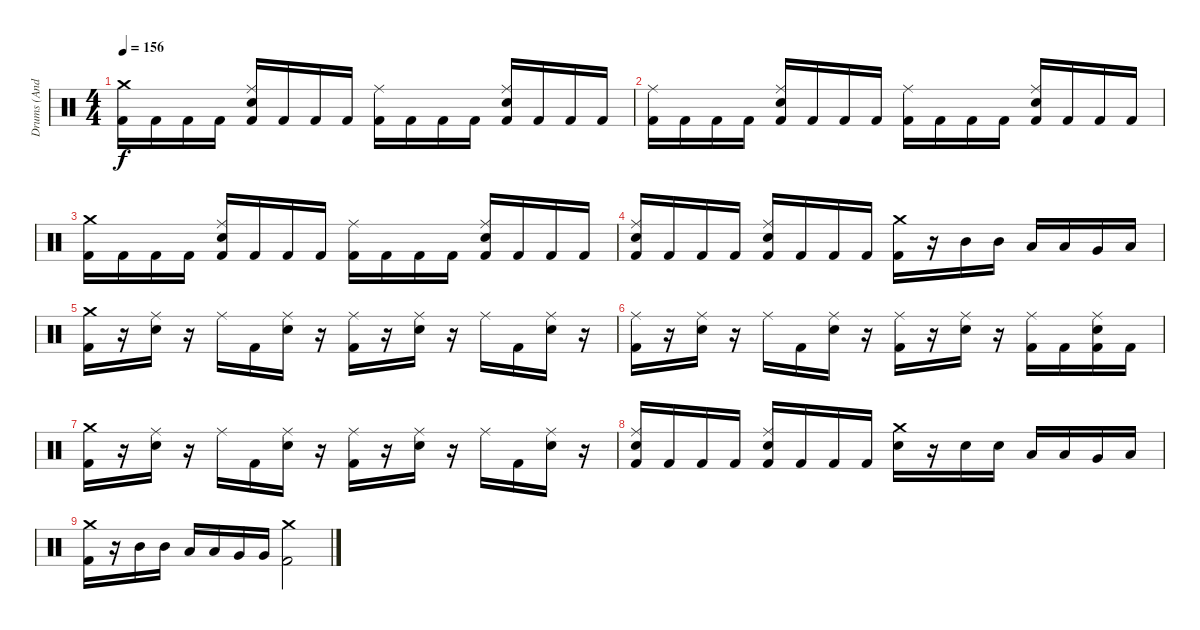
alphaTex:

\track ("Drums (Andy C)" "Drums (And") {instrument percussion}
\staff
\articulation defaults
\ts (4 4)
\tempo 156
\clef neutral
\ks c
("Crash medium (hit)" "Kick (hit) 2").16{dy f} "Kick (hit) 2".16 "Kick (hit) 2".16 "Kick (hit) 2".16 ("Ride (middle)" "Kick (hit) 2" "Electric Snare (hit)").16 "Kick (hit) 2".16 "Kick (hit) 2".16 "Kick (hit) 2".16 ("Ride (middle)" "Kick (hit) 2").16 "Kick (hit) 2".16 "Kick (hit) 2".16 "Kick (hit) 2".16 ("Ride (middle)" "Kick (hit) 2" "Electric Snare (hit)").16 "Kick (hit) 2".16 "Kick (hit) 2".16 "Kick (hit) 2".16 |
("Ride (middle)" "Kick (hit) 2").16 "Kick (hit) 2".16 "Kick (hit) 2".16 "Kick (hit) 2".16 ("Ride (middle)" "Kick (hit) 2" "Electric Snare (hit)").16 "Kick (hit) 2".16 "Kick (hit) 2".16 "Kick (hit) 2".16 ("Ride (middle)" "Kick (hit) 2").16 "Kick (hit) 2".16 "Kick (hit) 2".16 "Kick (hit) 2".16 ("Ride (middle)" "Kick (hit) 2" "Electric Snare (hit)").16 "Kick (hit) 2".16 "Kick (hit) 2".16 "Kick (hit) 2".16 |
("Crash medium (hit)" "Kick (hit) 2").16 "Kick (hit) 2".16 "Kick (hit) 2".16 "Kick (hit) 2".16 ("Ride (middle)" "Kick (hit) 2" "Electric Snare (hit)").16 "Kick (hit) 2".16 "Kick (hit) 2".16 "Kick (hit) 2".16 ("Ride (middle)" "Kick (hit) 2").16 "Kick (hit) 2".16 "Kick (hit) 2".16 "Kick (hit) 2".16 ("Ride (middle)" "Kick (hit) 2" "Electric Snare (hit)").16 "Kick (hit) 2".16 "Kick (hit) 2".16 "Kick (hit) 2".16 |
("Ride (middle)" "Kick (hit) 2" "Electric Snare (hit)").16 "Kick (hit) 2".16 "Kick (hit) 2".16 "Kick (hit) 2".16 ("Ride (middle)" "Kick (hit) 2" "Electric Snare (hit)").16 "Kick (hit) 2".16 "Kick (hit) 2".16 "Kick (hit) 2".16 ("Crash medium (hit)" "Kick (hit) 2").16 r.16 "Mid Tom (hit)".16 "Mid Tom (hit)".16 "Low Tom (hit)".16 "Low Tom (hit)".16 "Very Low Tom (hit)".16 "Low Floor Tom (hit)".16 |
("Crash medium (hit)" "Kick (hit) 2").16 r.16 ("Ride (middle)" "Electric Snare (hit)").16 r.16 "Ride (middle)".16 "Kick (hit) 2".16 ("Ride (middle)" "Electric Snare (hit)").16 r.16 ("Ride (middle)" "Kick (hit) 2").16 r.16 ("Ride (middle)" "Electric Snare (hit)").16 r.16 "Ride (middle)".16 "Kick (hit) 2".16 ("Ride (middle)" "Electric Snare (hit)").16 r.16 |
("Ride (middle)" "Kick (hit) 2").16 r.16 ("Ride (middle)" "Electric Snare (hit)").16 r.16 "Ride (middle)".16 "Kick (hit) 2".16 ("Ride (middle)" "Electric Snare (hit)").16 r.16 ("Ride (middle)" "Kick (hit) 2").16 r.16 ("Ride (middle)" "Electric Snare (hit)").16 r.16 ("Ride (middle)" "Kick (hit) 2").16 "Kick (hit) 2".16 ("Ride (middle)" "Kick (hit) 2" "Electric Snare (hit)").16 "Kick (hit) 2".16 |
("Crash medium (hit)" "Kick (hit) 2").16 r.16 ("Ride (middle)" "Electric Snare (hit)").16 r.16 "Ride (middle)".16 "Kick (hit) 2".16 ("Ride (middle)" "Electric Snare (hit)").16 r.16 ("Ride (middle)" "Kick (hit) 2").16 r.16 ("Ride (middle)" "Electric Snare (hit)").16 r.16 "Ride (middle)".16 "Kick (hit) 2".16 ("Ride (middle)" "Electric Snare (hit)").16 r.16 |
("Ride (middle)" "Kick (hit) 2" "Electric Snare (hit)").16 "Kick (hit) 2".16 "Kick (hit) 2".16 "Kick (hit) 2".16 ("Ride (middle)" "Kick (hit) 2" "Electric Snare (hit)").16 "Kick (hit) 2".16 "Kick (hit) 2".16 "Kick (hit) 2".16 ("Crash medium (hit)" "Electric Snare (hit)").16 r.16 "Electric Snare (hit)".16 "Electric Snare (hit)".16 "Low Tom (hit)".16 "Low Tom (hit)".16 "Very Low Tom (hit)".16 "Low Floor Tom (hit)".16 |
("Crash medium (hit)" "Kick (hit) 2").16 r.16 "Mid Tom (hit)".16 "Mid Tom (hit)".16 "Low Tom (hit)".16 "Low Tom (hit)".16 "Very Low Tom (hit)".16 "Very Low Tom (hit)".16 ("Crash medium (hit)" "Kick (hit) 2").2
